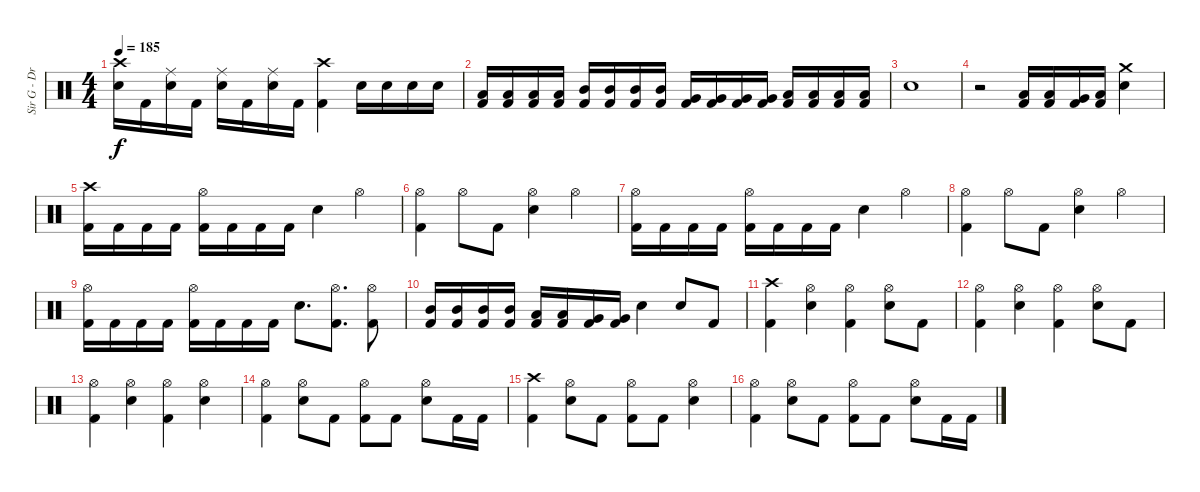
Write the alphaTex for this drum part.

\track ("Sir G - Drums" "Sir G - Dr") {instrument percussion}
\staff {score}
\articulation defaults
\ts (4 4)
\tempo 185
\clef neutral
\ks c
("Electric Snare (hit)" "Crash high (hit)").16{dy f} "Kick (hit) 2".16 ("Electric Snare (hit)" "Ride (middle)").16 "Kick (hit) 2".16 ("Electric Snare (hit)" "Ride (middle)").16 "Kick (hit) 2".16 ("Electric Snare (hit)" "Ride (middle)").16 "Kick (hit) 2".16 ("Kick (hit) 2" "Crash high (hit)").4 "Electric Snare (hit)".16 "Electric Snare (hit)".16 "Electric Snare (hit)".16 "Electric Snare (hit)".16 |
("Kick (hit) 2" "Low Tom (hit)").16 ("Kick (hit) 2" "Low Tom (hit)").16 ("Kick (hit) 2" "Low Tom (hit)").16 ("Kick (hit) 2" "Low Tom (hit)").16 ("Kick (hit) 2" "Mid Tom (hit)").16 ("Kick (hit) 2" "Mid Tom (hit)").16 ("Kick (hit) 2" "Mid Tom (hit)").16 ("Kick (hit) 2" "Mid Tom (hit)").16 ("Kick (hit) 2" "Very Low Tom (hit)").16 ("Kick (hit) 2" "Very Low Tom (hit)").16 ("Kick (hit) 2" "Very Low Tom (hit)").16 ("Kick (hit) 2" "Very Low Tom (hit)").16 ("Kick (hit) 2" "Low Tom (hit)").16 ("Kick (hit) 2" "Low Tom (hit)").16 ("Kick (hit) 2" "Low Tom (hit)").16 ("Kick (hit) 2" "Low Tom (hit)").16 |
"Electric Snare (hit)".1 |
r.2 ("Kick (hit) 2" "Low Tom (hit)").16 ("Kick (hit) 2" "Low Tom (hit)").16 ("Kick (hit) 2" "Very Low Tom (hit)").16 ("Kick (hit) 2" "Low Floor Tom (hit)").16 ("Electric Snare (hit)" "Crash medium (hit)").4 |
("Kick (hit) 2" "Crash high (hit)").16 "Kick (hit) 2".16 "Kick (hit) 2".16 "Kick (hit) 2".16 ("Kick (hit) 2" "Hi-Hat (open)").16 "Kick (hit) 2".16 "Kick (hit) 2".16 "Kick (hit) 2".16 "Electric Snare (hit)".4 "Hi-Hat (open)".4 |
("Kick (hit) 2" "Hi-Hat (open)").4 "Hi-Hat (open)".8 "Kick (hit) 2".8 ("Electric Snare (hit)" "Hi-Hat (open)").4 "Hi-Hat (open)".4 |
("Kick (hit) 2" "Hi-Hat (open)").16 "Kick (hit) 2".16 "Kick (hit) 2".16 "Kick (hit) 2".16 ("Kick (hit) 2" "Hi-Hat (open)").16 "Kick (hit) 2".16 "Kick (hit) 2".16 "Kick (hit) 2".16 "Electric Snare (hit)".4 "Hi-Hat (open)".4 |
("Kick (hit) 2" "Hi-Hat (open)").4 "Hi-Hat (open)".8 "Kick (hit) 2".8 ("Electric Snare (hit)" "Hi-Hat (open)").4 "Hi-Hat (open)".4 |
("Kick (hit) 2" "Hi-Hat (open)").16 "Kick (hit) 2".16 "Kick (hit) 2".16 "Kick (hit) 2".16 ("Kick (hit) 2" "Hi-Hat (open)").16 "Kick (hit) 2".16 "Kick (hit) 2".16 "Kick (hit) 2".16 "Electric Snare (hit)".8{d} ("Kick (hit) 2" "Hi-Hat (open)").8{d} ("Kick (hit) 2" "Hi-Hat (open)").8 |
("Kick (hit) 2" "Mid Tom (hit)").16 ("Kick (hit) 2" "Mid Tom (hit)").16 ("Kick (hit) 2" "Mid Tom (hit)").16 ("Kick (hit) 2" "Mid Tom (hit)").16 ("Kick (hit) 2" "Low Tom (hit)").16 ("Kick (hit) 2" "Low Tom (hit)").16 ("Kick (hit) 2" "Very Low Tom (hit)").16 ("Kick (hit) 2" "Very Low Tom (hit)").16 "Electric Snare (hit)".4 "Electric Snare (hit)".8 "Kick (hit) 2".8 |
("Kick (hit) 2" "Crash high (hit)").4 ("Electric Snare (hit)" "Hi-Hat (open)").4 ("Kick (hit) 2" "Hi-Hat (open)").4 ("Electric Snare (hit)" "Hi-Hat (open)").8 "Kick (hit) 2".8 |
("Kick (hit) 2" "Hi-Hat (open)").4 ("Electric Snare (hit)" "Hi-Hat (open)").4 ("Kick (hit) 2" "Hi-Hat (open)").4 ("Electric Snare (hit)" "Hi-Hat (open)").8 "Kick (hit) 2".8 |
("Kick (hit) 2" "Hi-Hat (open)").4 ("Electric Snare (hit)" "Hi-Hat (open)").4 ("Kick (hit) 2" "Hi-Hat (open)").4 ("Electric Snare (hit)" "Hi-Hat (open)").4 |
("Kick (hit) 2" "Hi-Hat (open)").4 ("Electric Snare (hit)" "Hi-Hat (open)").8 "Kick (hit) 2".8 ("Kick (hit) 2" "Hi-Hat (open)").8 "Kick (hit) 2".8 ("Electric Snare (hit)" "Hi-Hat (open)").8 "Kick (hit) 2".16 "Kick (hit) 2".16 |
("Kick (hit) 2" "Crash high (hit)").4 ("Electric Snare (hit)" "Hi-Hat (open)").8 "Kick (hit) 2".8 ("Kick (hit) 2" "Hi-Hat (open)").8 "Kick (hit) 2".8 ("Electric Snare (hit)" "Hi-Hat (open)").4 |
("Kick (hit) 2" "Hi-Hat (open)").4 ("Electric Snare (hit)" "Hi-Hat (open)").8 "Kick (hit) 2".8 ("Kick (hit) 2" "Hi-Hat (open)").8 "Kick (hit) 2".8 ("Electric Snare (hit)" "Hi-Hat (open)").8 "Kick (hit) 2".16 "Kick (hit) 2".16
